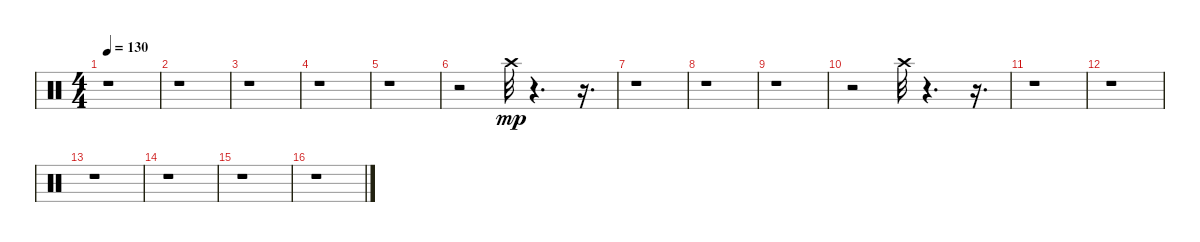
\track "" {instrument percussion}
\staff {score}
\articulation defaults
\ts (4 4)
\tempo 130
\clef neutral
\ks c
r.1{dy mp} |
r.1 |
r.1 |
r.1 |
r.1 |
r.2 "Crash high (hit)".32 r.4{d} r.16{d} |
r.1 |
r.1 |
r.1 |
r.2 "Crash high (hit)".32 r.4{d} r.16{d} |
r.1 |
r.1 |
r.1 |
r.1 |
r.1 |
r.1
